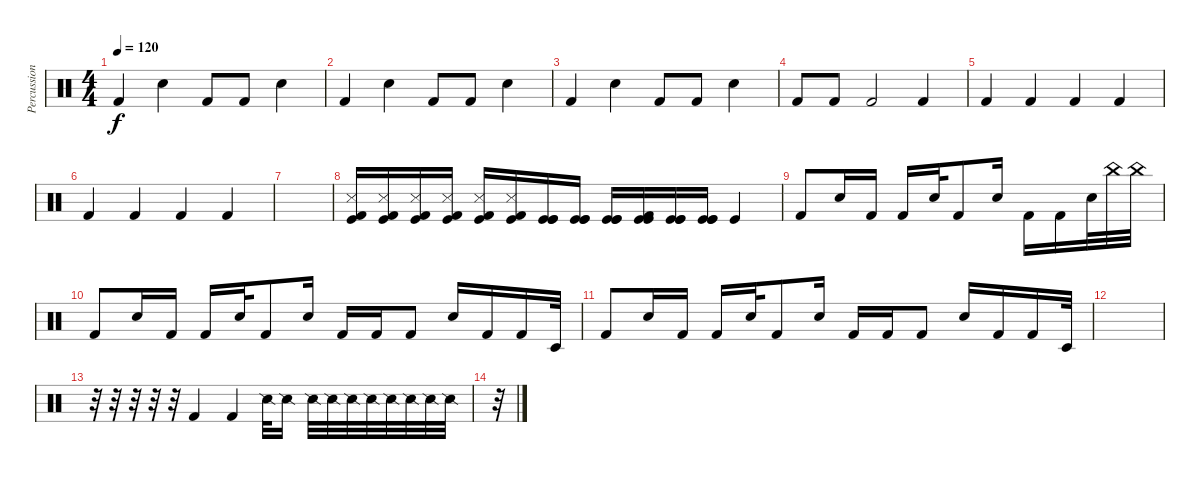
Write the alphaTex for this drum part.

\track ("Percussion" "Percussion") {instrument percussion}
\staff {score}
\articulation defaults
\ts (4 4)
\tempo 120
\clef neutral
\ks c "Kick (hit) 2".4{dy f} "Snare (hit) 2".4 "Kick (hit) 2".8 "Kick (hit) 2".8 "Snare (hit) 2".4
|
"Kick (hit) 2".4 "Snare (hit) 2".4 "Kick (hit) 2".8 "Kick (hit) 2".8 "Snare (hit) 2".4 |
"Kick (hit) 2".4 "Snare (hit) 2".4 "Kick (hit) 2".8 "Kick (hit) 2".8 "Snare (hit) 2".4 |
"Kick (hit) 2".8 "Kick (hit) 2".8 "Kick (hit) 2".2 "Kick (hit) 2".4 |
"Kick (hit) 2".4 "Kick (hit) 2".4 "Kick (hit) 2".4 "Kick (hit) 2".4 |
"Kick (hit) 2".4 "Kick (hit) 2".4 "Kick (hit) 2".4 "Kick (hit) 2".4 |
|
("Metronome (hit)" "Kick (hit)" "Kick (hit) 2").16 ("Metronome (hit)" "Kick (hit)" "Kick (hit) 2").16 ("Metronome (hit)" "Kick (hit)" "Kick (hit) 2").16 ("Metronome (hit)" "Kick (hit)" "Kick (hit) 2").16 ("Metronome (hit)" "Kick (hit)" "Kick (hit) 2").16 ("Metronome (hit)" "Kick (hit)" "Kick (hit) 2").16 ("Kick (hit)" "Kick (hit)" "Kick (hit)").16 ("Kick (hit)" "Kick (hit)" "Kick (hit)").16 ("Kick (hit)" "Kick (hit)" "Kick (hit)").16 ("Kick (hit)" "Kick (hit)" "Kick (hit) 2").16 ("Kick (hit)" "Kick (hit)" "Kick (hit)").16 ("Kick (hit)" "Kick (hit)" "Kick (hit)").16 "Kick (hit)".4 |
"Kick (hit) 2".8 "Snare (hit) 2".16 "Kick (hit) 2".16 "Kick (hit) 2".16 "Snare (hit) 2".32 "Kick (hit) 2".8 "Snare (hit) 2".16 "Kick (hit) 2".16 "Kick (hit) 2".16 "Snare (hit) 2".32 "China (hit)".32 "China (hit)".32 |
"Kick (hit) 2".8 "Snare (hit) 2".16 "Kick (hit) 2".16 "Kick (hit) 2".16 "Snare (hit) 2".32 "Kick (hit) 2".8 "Snare (hit) 2".16 "Kick (hit) 2".16 "Kick (hit) 2".16 "Kick (hit) 2".8 "Snare (hit) 2".16 "Kick (hit) 2".16 "Kick (hit) 2".16 "Timbale low (hit)".32 |
"Kick (hit) 2".8 "Snare (hit) 2".16 "Kick (hit) 2".16 "Kick (hit) 2".16 "Snare (hit) 2".32 "Kick (hit) 2".8 "Snare (hit) 2".16 "Kick (hit) 2".16 "Kick (hit) 2".16 "Kick (hit) 2".8 "Snare (hit) 2".16 "Kick (hit) 2".16 "Kick (hit) 2".16 "Timbale low (hit)".32 |
|
r.32 r.32 r.32 r.32 r.32 "Kick (hit) 2".4 "Kick (hit) 2".4 "Snare (side stick) 2".32 "Snare (side stick) 2".16 "Snare (side stick) 2".32 "Snare (side stick) 2".32 "Snare (side stick) 2".32 "Snare (side stick) 2".32 "Snare (side stick) 2".32 "Snare (side stick) 2".32 "Snare (side stick) 2".32 "Snare (side stick) 2".32 |
r.32
